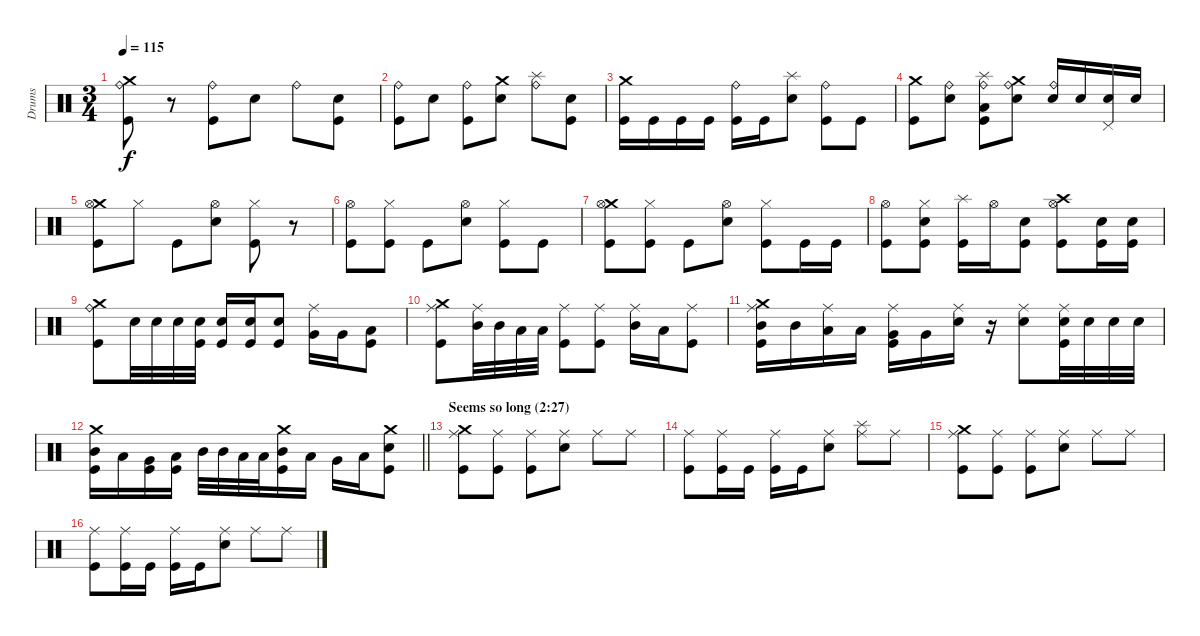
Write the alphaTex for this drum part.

\track ("Drums" "Drums") {instrument percussion}
\staff {score}
\articulation defaults
\ts (3 4)
\tempo 115
\clef neutral
\ks c
("Crash medium (hit)" "Ride (bell)" "Kick (hit)").8{dy f} r.8 ("Ride (bell)" "Kick (hit)").8 "Electric Snare (hit)".8 "Ride (bell)".8 ("Electric Snare (hit)" "Kick (hit)").8 |
("Ride (bell)" "Kick (hit)").8 "Electric Snare (hit)".8 ("Ride (bell)" "Kick (hit)").8 ("Crash medium (hit)" "Electric Snare (hit)").8 ("Splash (hit)" "Ride (bell)").8 ("Electric Snare (hit)" "Kick (hit)").8 |
("Crash medium (hit)" "Kick (hit)").16 "Kick (hit)".16 "Kick (hit)".16 "Kick (hit)".16 ("Ride (bell)" "Kick (hit)").16 "Kick (hit)".16 ("Splash (hit)" "Electric Snare (hit)").8 ("Ride (bell)" "Kick (hit)").8 "Kick (hit)".8 |
("Crash medium (hit)" "Kick (hit)").8 ("Ride (bell)" "Electric Snare (hit)").8 ("Splash (hit)" "Ride (bell)" "Low Floor Tom (hit)" "Kick (hit)").8 ("Crash medium (hit)" "Ride (bell)" "Electric Snare (hit)").8 ("Ride (bell)" "Electric Snare (hit)").16 "Electric Snare (hit)".16 ("Pedal Hi-Hat (hit)" "Electric Snare (hit)").16 "Electric Snare (hit)".16 |
("Crash medium (hit)" "Hi-Hat (open)" "Kick (hit)").8 "Hi-Hat (closed)".8 "Kick (hit)".8 ("Hi-Hat (open)" "Electric Snare (hit)").8 ("Hi-Hat (closed)" "Kick (hit)").8 r.8 |
("Hi-Hat (open)" "Kick (hit)").8 ("Hi-Hat (closed)" "Kick (hit)").8 "Kick (hit)".8 ("Hi-Hat (open)" "Electric Snare (hit)").8 ("Hi-Hat (closed)" "Kick (hit)").8 "Kick (hit)".8 |
("Crash medium (hit)" "Hi-Hat (open)" "Kick (hit)").8 ("Hi-Hat (closed)" "Kick (hit)").8 "Kick (hit)".8 ("Hi-Hat (open)" "Electric Snare (hit)").8 ("Hi-Hat (closed)" "Kick (hit)").8 "Kick (hit)".16 "Kick (hit)".16 |
("Hi-Hat (open)" "Kick (hit)").8 ("Hi-Hat (closed)" "Electric Snare (hit)" "Kick (hit)").8 ("Splash (hit)" "Kick (hit)").16 "Hi-Hat (open)".16 ("Electric Snare (hit)" "Kick (hit)").8 ("Crash high (hit)" "Hi-Hat (open)" "Kick (hit)").8 ("Electric Snare (hit)" "Kick (hit)").16 ("Electric Snare (hit)" "Kick (hit)").16 |
("Crash medium (hit)" "Ride (bell)" "Kick (hit)").8 "Electric Snare (hit)".32 "Electric Snare (hit)".32 "Electric Snare (hit)".32 ("Electric Snare (hit)" "Kick (hit)").32 ("Electric Snare (hit)" "Kick (hit)").16 ("Electric Snare (hit)" "Kick (hit)").16 ("Electric Snare (hit)" "Kick (hit)").8 ("Very Low Tom (hit)" "Ride (middle)").16 "Very Low Tom (hit)".16 ("Low Tom (hit)" "Kick (hit)").8 |
("Crash medium (hit)" "Ride (middle)" "Kick (hit)").8 ("Ride (middle)" "Mid Tom (hit)").32 "Mid Tom (hit)".32 "Low Tom (hit)".32 "Low Tom (hit)".32 ("Ride (middle)" "Kick (hit)").8 ("Ride (middle)" "Kick (hit)").8 ("Mid Tom (hit)" "Ride (middle)").16 "Low Floor Tom (hit)".16 ("Ride (middle)" "Kick (hit)").8 |
("Crash medium (hit)" "Mid Tom (hit)" "Ride (middle)" "Kick (hit)").16 "Mid Tom (hit)".16 ("Low Tom (hit)" "Ride (middle)").16 "Low Tom (hit)".16 ("Very Low Tom (hit)" "Ride (middle)" "Kick (hit)").16 "Very Low Tom (hit)".16 ("Electric Snare (hit)" "Ride (middle)").16 r.16 ("Ride (middle)" "Electric Snare (hit)").8 ("Electric Snare (hit)" "Ride (middle)" "Kick (hit)").32 "Electric Snare (hit)".32 "Electric Snare (hit)".32 "Electric Snare (hit)".32 |
\barLineRight lightlight
("Crash medium (hit)" "Mid Tom (hit)" "Kick (hit)").16 "Low Tom (hit)".16 ("Very Low Tom (hit)" "Kick (hit)").16 ("Low Floor Tom (hit)" "Kick (hit)").16 "Mid Tom (hit)".32 "Mid Tom (hit)".32 "Low Tom (hit)".32 "Low Tom (hit)".32 ("Crash medium (hit)" "Mid Tom (hit)" "Kick (hit)").16 "Low Tom (hit)".16 "Very Low Tom (hit)".16 "Low Floor Tom (hit)".16 ("Crash medium (hit)" "Electric Snare (hit)" "Kick (hit)").8 |
\section ("" "Seems so long (2:27)")
("Crash medium (hit)" "Ride (middle)" "Kick (hit)").8 ("Ride (middle)" "Kick (hit)").8 ("Ride (middle)" "Kick (hit)").8 ("Ride (middle)" "Electric Snare (hit)").8 "Ride (middle)".8 "Ride (middle)".8 |
("Ride (middle)" "Kick (hit)").8 ("Ride (middle)" "Kick (hit)").16 "Kick (hit)".16 ("Ride (middle)" "Kick (hit)").16 "Kick (hit)".16 ("Ride (middle)" "Electric Snare (hit)").8 ("Splash (hit)" "Ride (middle)").8 "Ride (middle)".8 |
("Crash medium (hit)" "Ride (middle)" "Kick (hit)").8 ("Ride (middle)" "Kick (hit)").8 ("Ride (middle)" "Kick (hit)").8 ("Ride (middle)" "Electric Snare (hit)").8 "Ride (middle)".8 "Ride (middle)".8 |
("Ride (middle)" "Kick (hit)").8 ("Ride (middle)" "Kick (hit)").16 "Kick (hit)".16 ("Ride (middle)" "Kick (hit)").16 "Kick (hit)".16 ("Ride (middle)" "Electric Snare (hit)").8 "Ride (middle)".8 "Ride (middle)".8
